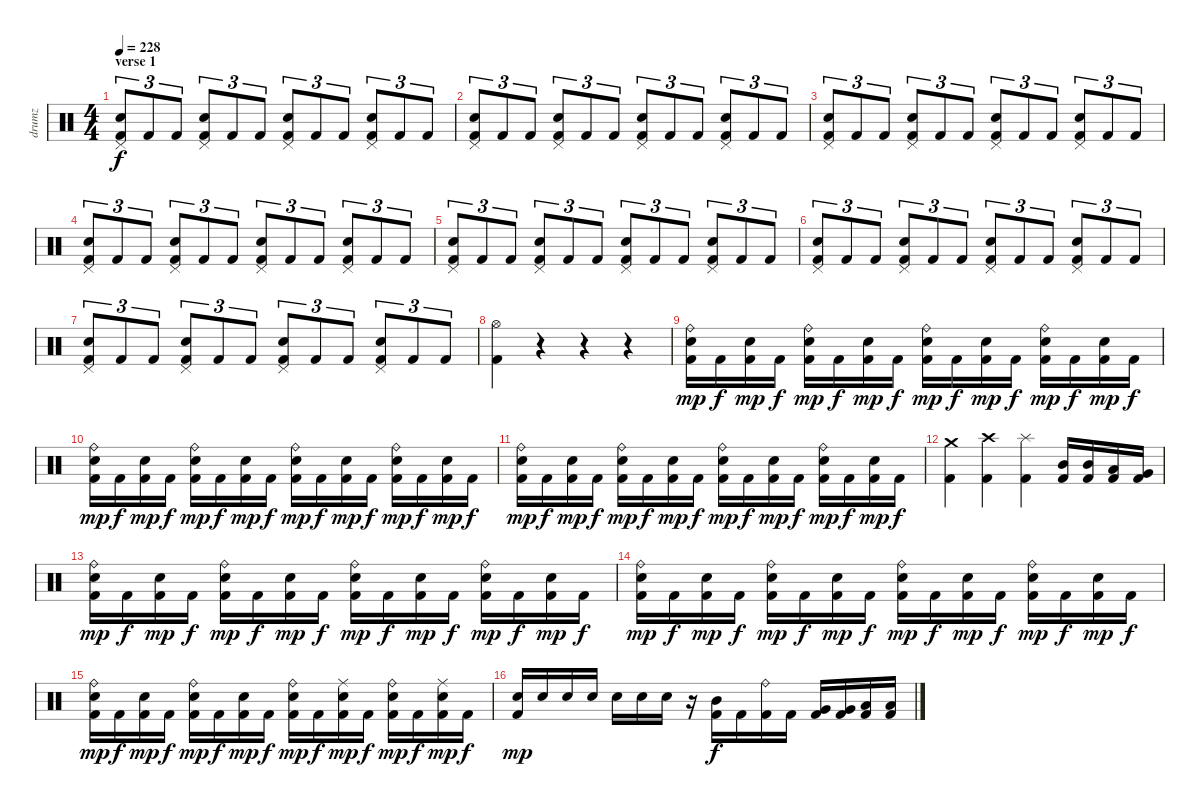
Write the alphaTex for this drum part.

\track ("drumz" "drumz") {instrument percussion}
\staff {score}
\articulation defaults
\ts (4 4)
\section ("" "verse 1")
\tempo 228
\clef neutral
\ks c
("Pedal Hi-Hat (hit)" "Snare (hit) 2" "Kick (hit) 2").8{tu (3 2) dy f} "Kick (hit) 2".8{tu (3 2)} "Kick (hit) 2".8{tu (3 2)} ("Pedal Hi-Hat (hit)" "Snare (hit) 2" "Kick (hit) 2").8{tu (3 2)} "Kick (hit) 2".8{tu (3 2)} "Kick (hit) 2".8{tu (3 2)} ("Pedal Hi-Hat (hit)" "Snare (hit) 2" "Kick (hit) 2").8{tu (3 2)} "Kick (hit) 2".8{tu (3 2)} "Kick (hit) 2".8{tu (3 2)} ("Pedal Hi-Hat (hit)" "Snare (hit) 2" "Kick (hit) 2").8{tu (3 2)} "Kick (hit) 2".8{tu (3 2)} "Kick (hit) 2".8{tu (3 2)} |
("Pedal Hi-Hat (hit)" "Snare (hit) 2" "Kick (hit) 2").8{tu (3 2)} "Kick (hit) 2".8{tu (3 2)} "Kick (hit) 2".8{tu (3 2)} ("Pedal Hi-Hat (hit)" "Snare (hit) 2" "Kick (hit) 2").8{tu (3 2)} "Kick (hit) 2".8{tu (3 2)} "Kick (hit) 2".8{tu (3 2)} ("Pedal Hi-Hat (hit)" "Snare (hit) 2" "Kick (hit) 2").8{tu (3 2)} "Kick (hit) 2".8{tu (3 2)} "Kick (hit) 2".8{tu (3 2)} ("Pedal Hi-Hat (hit)" "Snare (hit) 2" "Kick (hit) 2").8{tu (3 2)} "Kick (hit) 2".8{tu (3 2)} "Kick (hit) 2".8{tu (3 2)} |
("Pedal Hi-Hat (hit)" "Snare (hit) 2" "Kick (hit) 2").8{tu (3 2)} "Kick (hit) 2".8{tu (3 2)} "Kick (hit) 2".8{tu (3 2)} ("Pedal Hi-Hat (hit)" "Snare (hit) 2" "Kick (hit) 2").8{tu (3 2)} "Kick (hit) 2".8{tu (3 2)} "Kick (hit) 2".8{tu (3 2)} ("Pedal Hi-Hat (hit)" "Snare (hit) 2" "Kick (hit) 2").8{tu (3 2)} "Kick (hit) 2".8{tu (3 2)} "Kick (hit) 2".8{tu (3 2)} ("Pedal Hi-Hat (hit)" "Snare (hit) 2" "Kick (hit) 2").8{tu (3 2)} "Kick (hit) 2".8{tu (3 2)} "Kick (hit) 2".8{tu (3 2)} |
("Pedal Hi-Hat (hit)" "Snare (hit) 2" "Kick (hit) 2").8{tu (3 2)} "Kick (hit) 2".8{tu (3 2)} "Kick (hit) 2".8{tu (3 2)} ("Pedal Hi-Hat (hit)" "Snare (hit) 2" "Kick (hit) 2").8{tu (3 2)} "Kick (hit) 2".8{tu (3 2)} "Kick (hit) 2".8{tu (3 2)} ("Pedal Hi-Hat (hit)" "Snare (hit) 2" "Kick (hit) 2").8{tu (3 2)} "Kick (hit) 2".8{tu (3 2)} "Kick (hit) 2".8{tu (3 2)} ("Pedal Hi-Hat (hit)" "Snare (hit) 2" "Kick (hit) 2").8{tu (3 2)} "Kick (hit) 2".8{tu (3 2)} "Kick (hit) 2".8{tu (3 2)} |
("Pedal Hi-Hat (hit)" "Snare (hit) 2" "Kick (hit) 2").8{tu (3 2)} "Kick (hit) 2".8{tu (3 2)} "Kick (hit) 2".8{tu (3 2)} ("Pedal Hi-Hat (hit)" "Snare (hit) 2" "Kick (hit) 2").8{tu (3 2)} "Kick (hit) 2".8{tu (3 2)} "Kick (hit) 2".8{tu (3 2)} ("Pedal Hi-Hat (hit)" "Snare (hit) 2" "Kick (hit) 2").8{tu (3 2)} "Kick (hit) 2".8{tu (3 2)} "Kick (hit) 2".8{tu (3 2)} ("Pedal Hi-Hat (hit)" "Snare (hit) 2" "Kick (hit) 2").8{tu (3 2)} "Kick (hit) 2".8{tu (3 2)} "Kick (hit) 2".8{tu (3 2)} |
("Pedal Hi-Hat (hit)" "Snare (hit) 2" "Kick (hit) 2").8{tu (3 2)} "Kick (hit) 2".8{tu (3 2)} "Kick (hit) 2".8{tu (3 2)} ("Pedal Hi-Hat (hit)" "Snare (hit) 2" "Kick (hit) 2").8{tu (3 2)} "Kick (hit) 2".8{tu (3 2)} "Kick (hit) 2".8{tu (3 2)} ("Pedal Hi-Hat (hit)" "Snare (hit) 2" "Kick (hit) 2").8{tu (3 2)} "Kick (hit) 2".8{tu (3 2)} "Kick (hit) 2".8{tu (3 2)} ("Pedal Hi-Hat (hit)" "Snare (hit) 2" "Kick (hit) 2").8{tu (3 2)} "Kick (hit) 2".8{tu (3 2)} "Kick (hit) 2".8{tu (3 2)} |
("Pedal Hi-Hat (hit)" "Snare (hit) 2" "Kick (hit) 2").8{tu (3 2)} "Kick (hit) 2".8{tu (3 2)} "Kick (hit) 2".8{tu (3 2)} ("Pedal Hi-Hat (hit)" "Snare (hit) 2" "Kick (hit) 2").8{tu (3 2)} "Kick (hit) 2".8{tu (3 2)} "Kick (hit) 2".8{tu (3 2)} ("Pedal Hi-Hat (hit)" "Snare (hit) 2" "Kick (hit) 2").8{tu (3 2)} "Kick (hit) 2".8{tu (3 2)} "Kick (hit) 2".8{tu (3 2)} ("Pedal Hi-Hat (hit)" "Snare (hit) 2" "Kick (hit) 2").8{tu (3 2)} "Kick (hit) 2".8{tu (3 2)} "Kick (hit) 2".8{tu (3 2)} |
("Hi-Hat (open)" "Kick (hit) 2").4 r.4 r.4 r.4 |
("Ride (bell)" "Snare (hit) 2" "Kick (hit) 2").16{dy mp} "Kick (hit) 2".16{dy f} ("Snare (hit) 2" "Kick (hit) 2").16{dy mp} "Kick (hit) 2".16{dy f} ("Ride (bell)" "Snare (hit) 2" "Kick (hit) 2").16{dy mp} "Kick (hit) 2".16{dy f} ("Snare (hit) 2" "Kick (hit) 2").16{dy mp} "Kick (hit) 2".16{dy f} ("Ride (bell)" "Snare (hit) 2" "Kick (hit) 2").16{dy mp} "Kick (hit) 2".16{dy f} ("Snare (hit) 2" "Kick (hit) 2").16{dy mp} "Kick (hit) 2".16{dy f} ("Ride (bell)" "Snare (hit) 2" "Kick (hit) 2").16{dy mp} "Kick (hit) 2".16{dy f} ("Snare (hit) 2" "Kick (hit) 2").16{dy mp} "Kick (hit) 2".16{dy f} |
("Ride (bell)" "Snare (hit) 2" "Kick (hit) 2").16{dy mp} "Kick (hit) 2".16{dy f} ("Snare (hit) 2" "Kick (hit) 2").16{dy mp} "Kick (hit) 2".16{dy f} ("Ride (bell)" "Snare (hit) 2" "Kick (hit) 2").16{dy mp} "Kick (hit) 2".16{dy f} ("Snare (hit) 2" "Kick (hit) 2").16{dy mp} "Kick (hit) 2".16{dy f} ("Ride (bell)" "Snare (hit) 2" "Kick (hit) 2").16{dy mp} "Kick (hit) 2".16{dy f} ("Snare (hit) 2" "Kick (hit) 2").16{dy mp} "Kick (hit) 2".16{dy f} ("Ride (bell)" "Snare (hit) 2" "Kick (hit) 2").16{dy mp} "Kick (hit) 2".16{dy f} ("Snare (hit) 2" "Kick (hit) 2").16{dy mp} "Kick (hit) 2".16{dy f} |
("Ride (bell)" "Snare (hit) 2" "Kick (hit) 2").16{dy mp} "Kick (hit) 2".16{dy f} ("Snare (hit) 2" "Kick (hit) 2").16{dy mp} "Kick (hit) 2".16{dy f} ("Ride (bell)" "Snare (hit) 2" "Kick (hit) 2").16{dy mp} "Kick (hit) 2".16{dy f} ("Snare (hit) 2" "Kick (hit) 2").16{dy mp} "Kick (hit) 2".16{dy f} ("Ride (bell)" "Snare (hit) 2" "Kick (hit) 2").16{dy mp} "Kick (hit) 2".16{dy f} ("Snare (hit) 2" "Kick (hit) 2").16{dy mp} "Kick (hit) 2".16{dy f} ("Ride (bell)" "Snare (hit) 2" "Kick (hit) 2").16{dy mp} "Kick (hit) 2".16{dy f} ("Snare (hit) 2" "Kick (hit) 2").16{dy mp} "Kick (hit) 2".16{dy f} |
("Crash medium (hit)" "Kick (hit) 2").4 ("Crash high (hit)" "Kick (hit) 2").4 ("Splash (hit)" "Kick (hit) 2").4 ("Mid Tom (hit)" "Kick (hit) 2").16 ("Mid Tom (hit)" "Kick (hit) 2").16 ("Low Tom (hit)" "Kick (hit) 2").16 ("Very Low Tom (hit)" "Kick (hit) 2").16 |
("Ride (bell)" "Snare (hit) 2" "Kick (hit) 2").16{dy mp} "Kick (hit) 2".16{dy f} ("Snare (hit) 2" "Kick (hit) 2").16{dy mp} "Kick (hit) 2".16{dy f} ("Ride (bell)" "Snare (hit) 2" "Kick (hit) 2").16{dy mp} "Kick (hit) 2".16{dy f} ("Snare (hit) 2" "Kick (hit) 2").16{dy mp} "Kick (hit) 2".16{dy f} ("Ride (bell)" "Snare (hit) 2" "Kick (hit) 2").16{dy mp} "Kick (hit) 2".16{dy f} ("Snare (hit) 2" "Kick (hit) 2").16{dy mp} "Kick (hit) 2".16{dy f} ("Ride (bell)" "Snare (hit) 2" "Kick (hit) 2").16{dy mp} "Kick (hit) 2".16{dy f} ("Snare (hit) 2" "Kick (hit) 2").16{dy mp} "Kick (hit) 2".16{dy f} |
("Ride (bell)" "Snare (hit) 2" "Kick (hit) 2").16{dy mp} "Kick (hit) 2".16{dy f} ("Snare (hit) 2" "Kick (hit) 2").16{dy mp} "Kick (hit) 2".16{dy f} ("Ride (bell)" "Snare (hit) 2" "Kick (hit) 2").16{dy mp} "Kick (hit) 2".16{dy f} ("Snare (hit) 2" "Kick (hit) 2").16{dy mp} "Kick (hit) 2".16{dy f} ("Ride (bell)" "Snare (hit) 2" "Kick (hit) 2").16{dy mp} "Kick (hit) 2".16{dy f} ("Snare (hit) 2" "Kick (hit) 2").16{dy mp} "Kick (hit) 2".16{dy f} ("Ride (bell)" "Snare (hit) 2" "Kick (hit) 2").16{dy mp} "Kick (hit) 2".16{dy f} ("Snare (hit) 2" "Kick (hit) 2").16{dy mp} "Kick (hit) 2".16{dy f} |
("Ride (bell)" "Snare (hit) 2" "Kick (hit) 2").16{dy mp} "Kick (hit) 2".16{dy f} ("Snare (hit) 2" "Kick (hit) 2").16{dy mp} "Kick (hit) 2".16{dy f} ("Ride (bell)" "Snare (hit) 2" "Kick (hit) 2").16{dy mp} "Kick (hit) 2".16{dy f} ("Snare (hit) 2" "Kick (hit) 2").16{dy mp} "Kick (hit) 2".16{dy f} ("Ride (bell)" "Snare (hit) 2" "Kick (hit) 2").16{dy mp} "Kick (hit) 2".16{dy f} ("Ride (middle)" "Snare (hit) 2" "Kick (hit) 2").16{dy mp} "Kick (hit) 2".16{dy f} ("Ride (bell)" "Snare (hit) 2" "Kick (hit) 2").16{dy mp} "Kick (hit) 2".16{dy f} ("Ride (middle)" "Snare (hit) 2" "Kick (hit) 2").16{dy mp} "Kick (hit) 2".16{dy f} |
("Snare (hit) 2" "Kick (hit) 2").16{dy mp} "Snare (hit) 2".16 "Snare (hit) 2".16 "Snare (hit) 2".16 "Snare (hit) 2".16 "Snare (hit) 2".16 "Snare (hit) 2".16 r.16 ("Mid Tom (hit)" "Kick (hit) 2").16{dy f} "Kick (hit) 2".16 ("Ride (bell)" "Kick (hit) 2").16 "Kick (hit) 2".16 ("Very Low Tom (hit)" "Kick (hit) 2").16 ("Very Low Tom (hit)" "Kick (hit) 2").16 ("Low Floor Tom (hit)" "Kick (hit) 2").16 ("Low Floor Tom (hit)" "Kick (hit) 2").16
